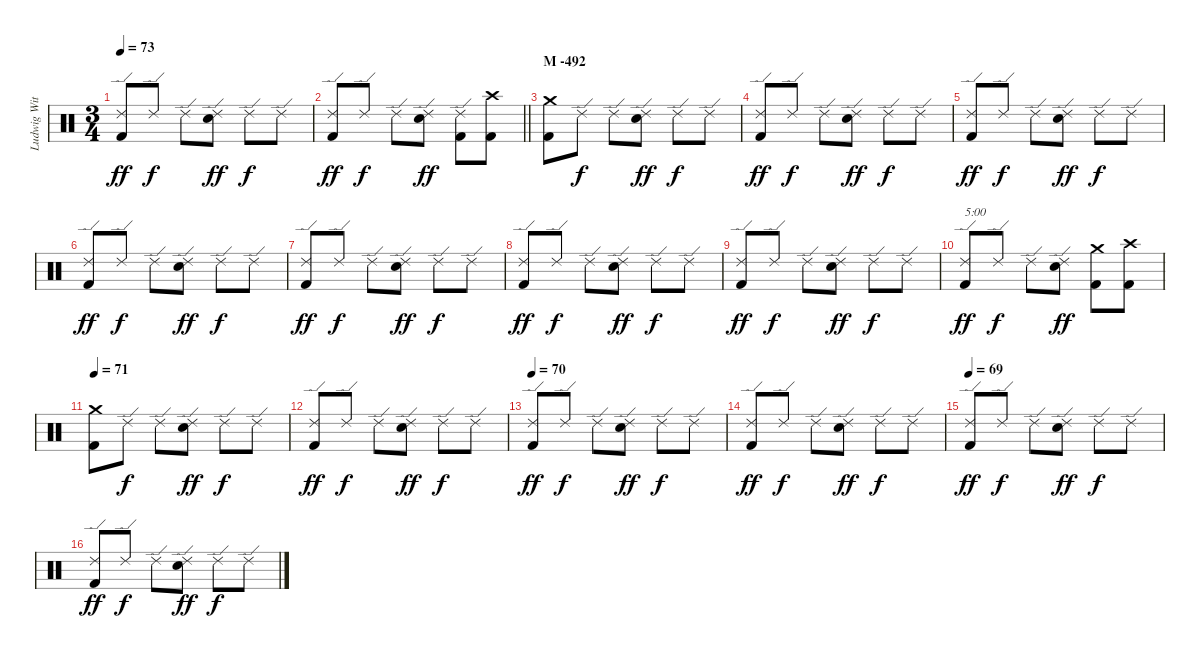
\track ("Ludwig Witt (Drums)" "Ludwig Wit") {instrument percussion}
\staff
\articulation defaults
\ts (3 4)
\tempo 73
\clef neutral
\ks c
("Ride (edge) 2" "Kick (hit) 2").8{dy ff} "Ride (edge) 2".8{dy f} "Ride (edge) 2".8 ("Ride (edge) 2" "Electric Snare (hit)").8{dy ff} "Ride (edge) 2".8{dy f} "Ride (edge) 2".8 |
\barLineRight lightlight
("Ride (edge) 2" "Kick (hit) 2").8{dy ff} "Ride (edge) 2".8{dy f} "Ride (edge) 2".8 ("Ride (edge) 2" "Electric Snare (hit)").8{dy ff} ("Ride (edge) 2" "Kick (hit) 2").8 ("Crash high (hit)" "Kick (hit) 2").8 |
\section ("" "M -492")
("Crash medium (hit)" "Kick (hit) 2").8 "Ride (edge) 2".8{dy f} "Ride (edge) 2".8 ("Ride (edge) 2" "Electric Snare (hit)").8{dy ff} "Ride (edge) 2".8{dy f} "Ride (edge) 2".8 |
("Ride (edge) 2" "Kick (hit) 2").8{dy ff} "Ride (edge) 2".8{dy f} "Ride (edge) 2".8 ("Ride (edge) 2" "Electric Snare (hit)").8{dy ff} "Ride (edge) 2".8{dy f} "Ride (edge) 2".8 |
("Ride (edge) 2" "Kick (hit) 2").8{dy ff} "Ride (edge) 2".8{dy f} "Ride (edge) 2".8 ("Ride (edge) 2" "Electric Snare (hit)").8{dy ff} "Ride (edge) 2".8{dy f} "Ride (edge) 2".8 |
("Ride (edge) 2" "Kick (hit) 2").8{dy ff} "Ride (edge) 2".8{dy f} "Ride (edge) 2".8 ("Ride (edge) 2" "Electric Snare (hit)").8{dy ff} "Ride (edge) 2".8{dy f} "Ride (edge) 2".8 |
("Ride (edge) 2" "Kick (hit) 2").8{dy ff} "Ride (edge) 2".8{dy f} "Ride (edge) 2".8 ("Ride (edge) 2" "Electric Snare (hit)").8{dy ff} "Ride (edge) 2".8{dy f} "Ride (edge) 2".8 |
("Ride (edge) 2" "Kick (hit) 2").8{dy ff} "Ride (edge) 2".8{dy f} "Ride (edge) 2".8 ("Ride (edge) 2" "Electric Snare (hit)").8{dy ff} "Ride (edge) 2".8{dy f} "Ride (edge) 2".8 |
("Ride (edge) 2" "Kick (hit) 2").8{dy ff} "Ride (edge) 2".8{dy f} "Ride (edge) 2".8 ("Ride (edge) 2" "Electric Snare (hit)").8{dy ff} "Ride (edge) 2".8{dy f} "Ride (edge) 2".8 |
("Ride (edge) 2" "Kick (hit) 2").8{txt "5:00" dy ff} "Ride (edge) 2".8{dy f} "Ride (edge) 2".8 ("Ride (edge) 2" "Electric Snare (hit)").8{dy ff} ("Crash medium (hit)" "Kick (hit) 2").8 ("Crash high (hit)" "Kick (hit) 2").8 |
\tempo 71
("Crash medium (hit)" "Kick (hit) 2").8 "Ride (edge) 2".8{dy f} "Ride (edge) 2".8 ("Ride (edge) 2" "Electric Snare (hit)").8{dy ff} "Ride (edge) 2".8{dy f} "Ride (edge) 2".8 |
("Ride (edge) 2" "Kick (hit) 2").8{dy ff} "Ride (edge) 2".8{dy f} "Ride (edge) 2".8 ("Ride (edge) 2" "Electric Snare (hit)").8{dy ff} "Ride (edge) 2".8{dy f} "Ride (edge) 2".8 |
\tempo 70
("Ride (edge) 2" "Kick (hit) 2").8{dy ff} "Ride (edge) 2".8{dy f} "Ride (edge) 2".8 ("Ride (edge) 2" "Electric Snare (hit)").8{dy ff} "Ride (edge) 2".8{dy f} "Ride (edge) 2".8 |
("Ride (edge) 2" "Kick (hit) 2").8{dy ff} "Ride (edge) 2".8{dy f} "Ride (edge) 2".8 ("Ride (edge) 2" "Electric Snare (hit)").8{dy ff} "Ride (edge) 2".8{dy f} "Ride (edge) 2".8 |
\tempo 69
("Ride (edge) 2" "Kick (hit) 2").8{dy ff} "Ride (edge) 2".8{dy f} "Ride (edge) 2".8 ("Ride (edge) 2" "Electric Snare (hit)").8{dy ff} "Ride (edge) 2".8{dy f} "Ride (edge) 2".8 |
("Ride (edge) 2" "Kick (hit) 2").8{dy ff} "Ride (edge) 2".8{dy f} "Ride (edge) 2".8 ("Ride (edge) 2" "Electric Snare (hit)").8{dy ff} "Ride (edge) 2".8{dy f} "Ride (edge) 2".8
